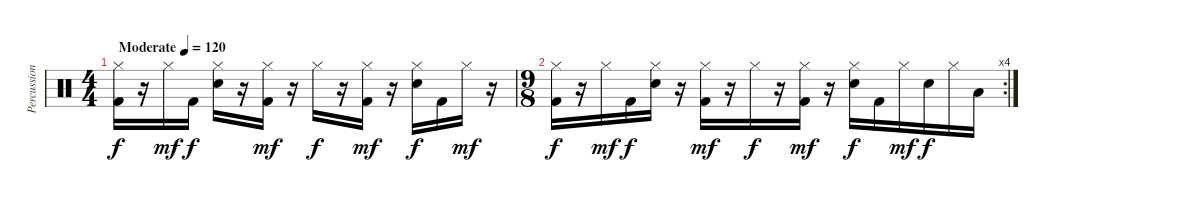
\track ("Percussion" "Percussion") {instrument percussion}
\staff {score}
\articulation defaults
\ts (4 4)
\tempo (120 "Moderate")
\clef neutral
\ks c
("Hi-Hat (closed)" "Kick (hit) 2").16{dy f} r.16 "Hi-Hat (closed)".16{dy mf} "Kick (hit) 2".16{dy f} ("Hi-Hat (closed)" "Electric Snare (hit)").16 r.16 ("Hi-Hat (closed)" "Kick (hit) 2").16{dy mf} r.16 "Hi-Hat (closed)".16{dy f} r.16 ("Hi-Hat (closed)" "Kick (hit) 2").16{dy mf} r.16 ("Hi-Hat (closed)" "Electric Snare (hit)").16{dy f} "Kick (hit) 2".16 "Hi-Hat (closed)".16{dy mf} r.16 |
\rc 4
\ts (9 8)
("Hi-Hat (closed)" "Kick (hit) 2").16{dy f} r.16 "Hi-Hat (closed)".16{dy mf} "Kick (hit) 2".16{dy f} ("Hi-Hat (closed)" "Electric Snare (hit)").16 r.16 ("Hi-Hat (closed)" "Kick (hit) 2").16{dy mf} r.16 "Hi-Hat (closed)".16{dy f} r.16 ("Hi-Hat (closed)" "Kick (hit) 2").16{dy mf} r.16 ("Hi-Hat (closed)" "Electric Snare (hit)").16{dy f} "Kick (hit) 2".16 "Hi-Hat (closed)".16{dy mf} "Electric Snare (hit)".16{dy f} "Hi-Hat (closed)".16 "Low Tom (hit)".16
